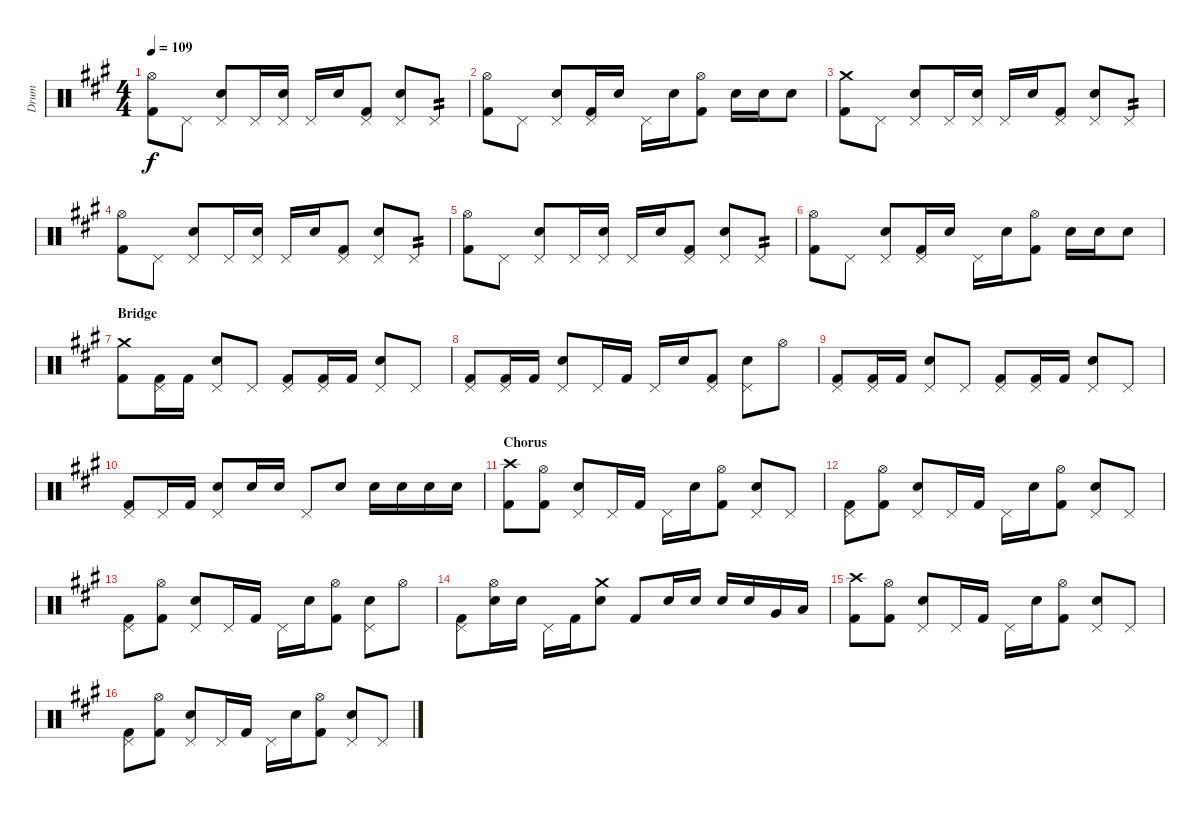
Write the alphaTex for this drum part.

\track ("Drum" "Drum") {instrument percussion}
\staff {score}
\articulation defaults
\ts (4 4)
\tempo 109
\clef neutral
\ks f#minor
("Hi-Hat (open)" "Kick (hit) 2").8{dy f} "Pedal Hi-Hat (hit)".8 ("Pedal Hi-Hat (hit)" "Electric Snare (hit)").8 "Pedal Hi-Hat (hit)".16 ("Pedal Hi-Hat (hit)" "Electric Snare (hit)").16 "Pedal Hi-Hat (hit)".16 "Electric Snare (hit)".16 ("Pedal Hi-Hat (hit)" "Kick (hit) 2").8 ("Pedal Hi-Hat (hit)" "Electric Snare (hit)").8 "Pedal Hi-Hat (hit)".8{tp 2} |
("Hi-Hat (open)" "Kick (hit) 2").8 "Pedal Hi-Hat (hit)".8 ("Pedal Hi-Hat (hit)" "Electric Snare (hit)").8 ("Pedal Hi-Hat (hit)" "Kick (hit) 2").16 "Electric Snare (hit)".16 "Pedal Hi-Hat (hit)".16 "Electric Snare (hit)".16 ("Hi-Hat (open)" "Kick (hit) 2").8 "Electric Snare (hit)".16 "Electric Snare (hit)".16 "Electric Snare (hit)".8 |
("Crash medium (hit)" "Kick (hit) 2").8 "Pedal Hi-Hat (hit)".8 ("Pedal Hi-Hat (hit)" "Electric Snare (hit)").8 "Pedal Hi-Hat (hit)".16 ("Pedal Hi-Hat (hit)" "Electric Snare (hit)").16 "Pedal Hi-Hat (hit)".16 "Electric Snare (hit)".16 ("Pedal Hi-Hat (hit)" "Kick (hit) 2").8 ("Pedal Hi-Hat (hit)" "Electric Snare (hit)").8 "Pedal Hi-Hat (hit)".8{tp 2} |
("Hi-Hat (open)" "Kick (hit) 2").8 "Pedal Hi-Hat (hit)".8 ("Pedal Hi-Hat (hit)" "Electric Snare (hit)").8 "Pedal Hi-Hat (hit)".16 ("Pedal Hi-Hat (hit)" "Electric Snare (hit)").16 "Pedal Hi-Hat (hit)".16 "Electric Snare (hit)".16 ("Pedal Hi-Hat (hit)" "Kick (hit) 2").8 ("Pedal Hi-Hat (hit)" "Electric Snare (hit)").8 "Pedal Hi-Hat (hit)".8{tp 2} |
("Hi-Hat (open)" "Kick (hit) 2").8 "Pedal Hi-Hat (hit)".8 ("Pedal Hi-Hat (hit)" "Electric Snare (hit)").8 "Pedal Hi-Hat (hit)".16 ("Pedal Hi-Hat (hit)" "Electric Snare (hit)").16 "Pedal Hi-Hat (hit)".16 "Electric Snare (hit)".16 ("Pedal Hi-Hat (hit)" "Kick (hit) 2").8 ("Pedal Hi-Hat (hit)" "Electric Snare (hit)").8 "Pedal Hi-Hat (hit)".8{tp 2} |
("Hi-Hat (open)" "Kick (hit) 2").8 "Pedal Hi-Hat (hit)".8 ("Pedal Hi-Hat (hit)" "Electric Snare (hit)").8 ("Pedal Hi-Hat (hit)" "Kick (hit) 2").16 "Electric Snare (hit)".16 "Pedal Hi-Hat (hit)".16 "Electric Snare (hit)".16 ("Hi-Hat (open)" "Kick (hit) 2").8 "Electric Snare (hit)".16 "Electric Snare (hit)".16 "Electric Snare (hit)".8 |
\section ("" "Bridge")
("Crash medium (hit)" "Kick (hit) 2").8 ("Pedal Hi-Hat (hit)" "Kick (hit) 2").16 "Kick (hit) 2".16 ("Pedal Hi-Hat (hit)" "Electric Snare (hit)").8 "Pedal Hi-Hat (hit)".8 ("Pedal Hi-Hat (hit)" "Kick (hit) 2").8 ("Pedal Hi-Hat (hit)" "Kick (hit) 2").16 "Kick (hit) 2".16 ("Pedal Hi-Hat (hit)" "Electric Snare (hit)").8 "Pedal Hi-Hat (hit)".8 |
("Pedal Hi-Hat (hit)" "Kick (hit) 2").8 ("Pedal Hi-Hat (hit)" "Kick (hit) 2").16 "Kick (hit) 2".16 ("Pedal Hi-Hat (hit)" "Electric Snare (hit)").8 "Pedal Hi-Hat (hit)".16 "Kick (hit) 2".16 "Pedal Hi-Hat (hit)".16 "Electric Snare (hit)".16 ("Pedal Hi-Hat (hit)" "Kick (hit) 2").8 ("Pedal Hi-Hat (hit)" "Electric Snare (hit)").8 "Hi-Hat (open)".8 |
("Pedal Hi-Hat (hit)" "Kick (hit) 2").8 ("Pedal Hi-Hat (hit)" "Kick (hit) 2").16 "Kick (hit) 2".16 ("Pedal Hi-Hat (hit)" "Electric Snare (hit)").8 "Pedal Hi-Hat (hit)".8 ("Pedal Hi-Hat (hit)" "Kick (hit) 2").8 ("Pedal Hi-Hat (hit)" "Kick (hit) 2").16 "Kick (hit) 2".16 ("Pedal Hi-Hat (hit)" "Electric Snare (hit)").8 "Pedal Hi-Hat (hit)".8 |
("Pedal Hi-Hat (hit)" "Kick (hit) 2").8 "Pedal Hi-Hat (hit)".16 "Kick (hit) 2".16 ("Pedal Hi-Hat (hit)" "Electric Snare (hit)").8 "Electric Snare (hit)".16 "Electric Snare (hit)".16 "Pedal Hi-Hat (hit)".8 "Electric Snare (hit)".8 "Electric Snare (hit)".16 "Electric Snare (hit)".16 "Electric Snare (hit)".16 "Electric Snare (hit)".16 |
\section ("" "Chorus")
("Crash high (hit)" "Kick (hit) 2").8 ("Hi-Hat (open)" "Kick (hit) 2").8 ("Pedal Hi-Hat (hit)" "Electric Snare (hit)").8 "Pedal Hi-Hat (hit)".16 "Kick (hit) 2".16 "Pedal Hi-Hat (hit)".16 "Electric Snare (hit)".16 ("Hi-Hat (open)" "Kick (hit) 2").8 ("Pedal Hi-Hat (hit)" "Electric Snare (hit)").8 "Pedal Hi-Hat (hit)".8 |
("Pedal Hi-Hat (hit)" "Kick (hit) 2").8 ("Hi-Hat (open)" "Kick (hit) 2").8 ("Pedal Hi-Hat (hit)" "Electric Snare (hit)").8 "Pedal Hi-Hat (hit)".16 "Kick (hit) 2".16 "Pedal Hi-Hat (hit)".16 "Electric Snare (hit)".16 ("Hi-Hat (open)" "Kick (hit) 2").8 ("Pedal Hi-Hat (hit)" "Electric Snare (hit)").8 "Pedal Hi-Hat (hit)".8 |
("Pedal Hi-Hat (hit)" "Kick (hit) 2").8 ("Hi-Hat (open)" "Kick (hit) 2").8 ("Pedal Hi-Hat (hit)" "Electric Snare (hit)").8 "Pedal Hi-Hat (hit)".16 "Kick (hit) 2".16 "Pedal Hi-Hat (hit)".16 "Electric Snare (hit)".16 ("Hi-Hat (open)" "Kick (hit) 2").8 ("Pedal Hi-Hat (hit)" "Electric Snare (hit)").8 "Hi-Hat (open)".8 |
("Pedal Hi-Hat (hit)" "Kick (hit) 2").8 ("Hi-Hat (open)" "Electric Snare (hit)").16 "Electric Snare (hit)".16 "Pedal Hi-Hat (hit)".16 "Kick (hit) 2".16 ("Crash medium (hit)" "Electric Snare (hit)").8 "Kick (hit) 2".8 "Electric Snare (hit)".16 "Electric Snare (hit)".16 "Electric Snare (hit)".16 "Electric Snare (hit)".16 "Very Low Tom (hit)".16 "Low Floor Tom (hit)".16 |
("Crash high (hit)" "Kick (hit) 2").8 ("Hi-Hat (open)" "Kick (hit) 2").8 ("Pedal Hi-Hat (hit)" "Electric Snare (hit)").8 "Pedal Hi-Hat (hit)".16 "Kick (hit) 2".16 "Pedal Hi-Hat (hit)".16 "Electric Snare (hit)".16 ("Hi-Hat (open)" "Kick (hit) 2").8 ("Pedal Hi-Hat (hit)" "Electric Snare (hit)").8 "Pedal Hi-Hat (hit)".8 |
("Pedal Hi-Hat (hit)" "Kick (hit) 2").8 ("Hi-Hat (open)" "Kick (hit) 2").8 ("Pedal Hi-Hat (hit)" "Electric Snare (hit)").8 "Pedal Hi-Hat (hit)".16 "Kick (hit) 2".16 "Pedal Hi-Hat (hit)".16 "Electric Snare (hit)".16 ("Hi-Hat (open)" "Kick (hit) 2").8 ("Pedal Hi-Hat (hit)" "Electric Snare (hit)").8 "Pedal Hi-Hat (hit)".8
